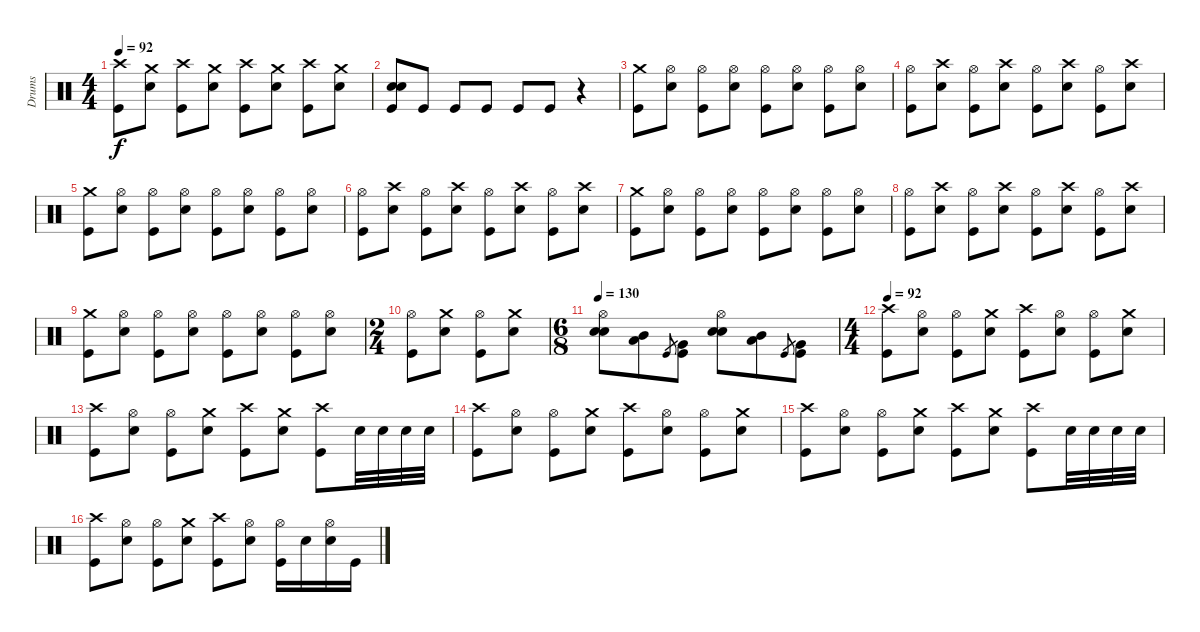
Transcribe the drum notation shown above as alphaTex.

\track ("Drums" "Drums") {instrument percussion}
\staff {score}
\articulation defaults
\ts (4 4)
\tempo 92
\clef neutral
\ks c
("Crash high (hit)" "Kick (hit)").8{dy f} ("Crash medium (hit)" "Electric Snare (hit)").8 ("Crash high (hit)" "Kick (hit)").8 ("Crash medium (hit)" "Electric Snare (hit)").8 ("Crash high (hit)" "Kick (hit)").8 ("Crash medium (hit)" "Electric Snare (hit)").8 ("Crash high (hit)" "Kick (hit)").8 ("Crash medium (hit)" "Electric Snare (hit)").8 |
("Electric Snare (hit)" "Electric Snare (hit)" "Kick (hit)").8 "Kick (hit)".8 "Kick (hit)".8 "Kick (hit)".8 "Kick (hit)".8 "Kick (hit)".8 r.4 |
("Crash medium (hit)" "Kick (hit)").8 ("Hi-Hat (open)" "Electric Snare (hit)").8 ("Hi-Hat (open)" "Kick (hit)").8 ("Hi-Hat (open)" "Electric Snare (hit)").8 ("Hi-Hat (open)" "Kick (hit)").8 ("Hi-Hat (open)" "Electric Snare (hit)").8 ("Hi-Hat (open)" "Kick (hit)").8 ("Hi-Hat (open)" "Electric Snare (hit)").8 |
("Hi-Hat (open)" "Kick (hit)").8 ("Crash high (hit)" "Electric Snare (hit)").8 ("Hi-Hat (open)" "Kick (hit)").8 ("Crash high (hit)" "Electric Snare (hit)").8 ("Hi-Hat (open)" "Kick (hit)").8 ("Crash high (hit)" "Electric Snare (hit)").8 ("Hi-Hat (open)" "Kick (hit)").8 ("Crash high (hit)" "Electric Snare (hit)").8 |
("Crash medium (hit)" "Kick (hit)").8 ("Hi-Hat (open)" "Electric Snare (hit)").8 ("Hi-Hat (open)" "Kick (hit)").8 ("Hi-Hat (open)" "Electric Snare (hit)").8 ("Hi-Hat (open)" "Kick (hit)").8 ("Hi-Hat (open)" "Electric Snare (hit)").8 ("Hi-Hat (open)" "Kick (hit)").8 ("Hi-Hat (open)" "Electric Snare (hit)").8 |
("Hi-Hat (open)" "Kick (hit)").8 ("Crash high (hit)" "Electric Snare (hit)").8 ("Hi-Hat (open)" "Kick (hit)").8 ("Crash high (hit)" "Electric Snare (hit)").8 ("Hi-Hat (open)" "Kick (hit)").8 ("Crash high (hit)" "Electric Snare (hit)").8 ("Hi-Hat (open)" "Kick (hit)").8 ("Crash high (hit)" "Electric Snare (hit)").8 |
("Crash medium (hit)" "Kick (hit)").8 ("Hi-Hat (open)" "Electric Snare (hit)").8 ("Hi-Hat (open)" "Kick (hit)").8 ("Hi-Hat (open)" "Electric Snare (hit)").8 ("Hi-Hat (open)" "Kick (hit)").8 ("Hi-Hat (open)" "Electric Snare (hit)").8 ("Hi-Hat (open)" "Kick (hit)").8 ("Hi-Hat (open)" "Electric Snare (hit)").8 |
("Hi-Hat (open)" "Kick (hit)").8 ("Crash high (hit)" "Electric Snare (hit)").8 ("Hi-Hat (open)" "Kick (hit)").8 ("Crash high (hit)" "Electric Snare (hit)").8 ("Hi-Hat (open)" "Kick (hit)").8 ("Crash high (hit)" "Electric Snare (hit)").8 ("Hi-Hat (open)" "Kick (hit)").8 ("Crash high (hit)" "Electric Snare (hit)").8 |
("Crash medium (hit)" "Kick (hit)").8 ("Hi-Hat (open)" "Electric Snare (hit)").8 ("Hi-Hat (open)" "Kick (hit)").8 ("Hi-Hat (open)" "Electric Snare (hit)").8 ("Hi-Hat (open)" "Kick (hit)").8 ("Hi-Hat (open)" "Electric Snare (hit)").8 ("Hi-Hat (open)" "Kick (hit)").8 ("Hi-Hat (open)" "Electric Snare (hit)").8 |
\ts (2 4)
("Hi-Hat (open)" "Kick (hit)").8 ("Crash medium (hit)" "Electric Snare (hit)").8 ("Hi-Hat (open)" "Kick (hit)").8 ("Crash medium (hit)" "Electric Snare (hit)").8 |
\ts (6 8)
\tempo 130
("Hi-Hat (open)" "Electric Snare (hit)" "Electric Snare (hit)").8 ("Mid Tom (hit)" "Low Tom (hit)").8 "Kick (hit)".8{gr} ("Very Low Tom (hit)" "Kick (hit)").8 ("Hi-Hat (open)" "Electric Snare (hit)" "Electric Snare (hit)").8 ("Mid Tom (hit)" "Low Tom (hit)").8 "Kick (hit)".8{gr} ("Very Low Tom (hit)" "Kick (hit)").8 |
\ts (4 4)
\tempo 92
("Crash high (hit)" "Kick (hit)").8 ("Hi-Hat (open)" "Electric Snare (hit)").8 ("Hi-Hat (open)" "Kick (hit)").8 ("Crash medium (hit)" "Electric Snare (hit)").8 ("Crash high (hit)" "Kick (hit)").8 ("Hi-Hat (open)" "Electric Snare (hit)").8 ("Hi-Hat (open)" "Kick (hit)").8 ("Crash medium (hit)" "Electric Snare (hit)").8 |
("Crash high (hit)" "Kick (hit)").8 ("Hi-Hat (open)" "Electric Snare (hit)").8 ("Hi-Hat (open)" "Kick (hit)").8 ("Crash medium (hit)" "Electric Snare (hit)").8 ("Crash high (hit)" "Kick (hit)").8 ("Crash medium (hit)" "Electric Snare (hit)").8 ("Crash high (hit)" "Kick (hit)").8 "Electric Snare (hit)".32 "Electric Snare (hit)".32 "Electric Snare (hit)".32 "Electric Snare (hit)".32 |
("Crash high (hit)" "Kick (hit)").8 ("Hi-Hat (open)" "Electric Snare (hit)").8 ("Hi-Hat (open)" "Kick (hit)").8 ("Crash medium (hit)" "Electric Snare (hit)").8 ("Crash high (hit)" "Kick (hit)").8 ("Hi-Hat (open)" "Electric Snare (hit)").8 ("Hi-Hat (open)" "Kick (hit)").8 ("Crash medium (hit)" "Electric Snare (hit)").8 |
("Crash high (hit)" "Kick (hit)").8 ("Hi-Hat (open)" "Electric Snare (hit)").8 ("Hi-Hat (open)" "Kick (hit)").8 ("Crash medium (hit)" "Electric Snare (hit)").8 ("Crash high (hit)" "Kick (hit)").8 ("Crash medium (hit)" "Electric Snare (hit)").8 ("Crash high (hit)" "Kick (hit)").8 "Electric Snare (hit)".32 "Electric Snare (hit)".32 "Electric Snare (hit)".32 "Electric Snare (hit)".32 |
("Crash high (hit)" "Kick (hit)").8 ("Hi-Hat (open)" "Electric Snare (hit)").8 ("Hi-Hat (open)" "Kick (hit)").8 ("Crash medium (hit)" "Electric Snare (hit)").8 ("Crash high (hit)" "Kick (hit)").8 ("Hi-Hat (open)" "Electric Snare (hit)").8 ("Hi-Hat (open)" "Kick (hit)").16 "Electric Snare (hit)".16 ("Hi-Hat (open)" "Electric Snare (hit)").16 "Kick (hit)".16
